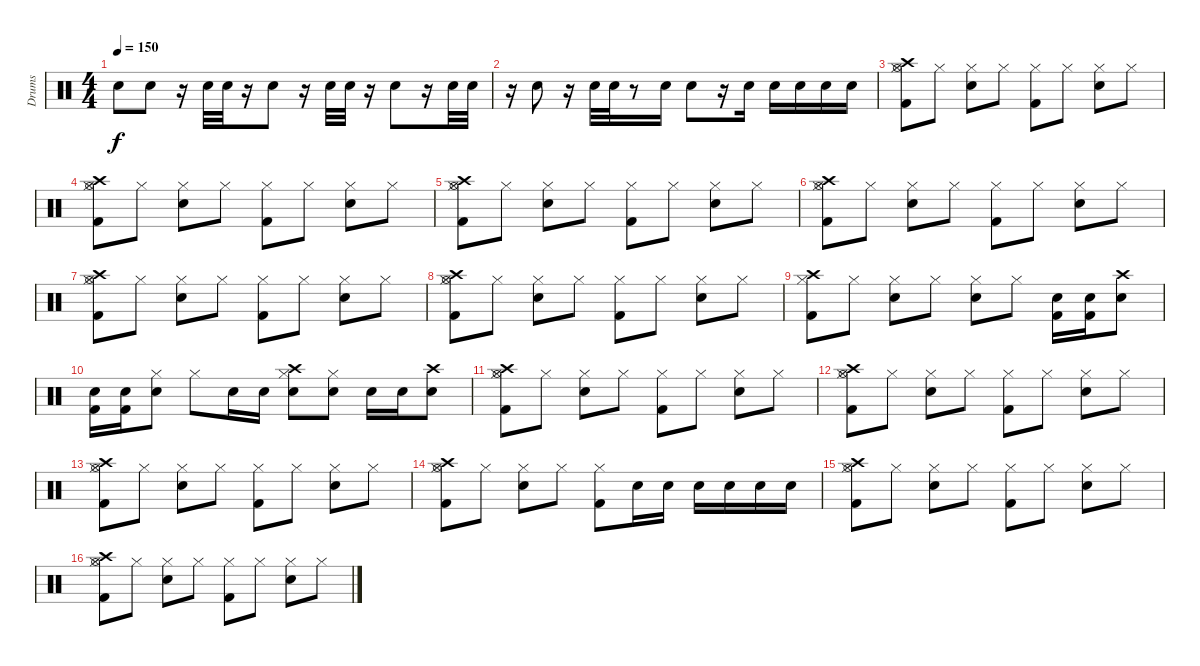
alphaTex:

\track ("Drums" "Drums") {instrument percussion}
\staff {score}
\articulation defaults
\ts (4 4)
\tempo 150
\clef neutral
\ks c "Snare (hit) 2".8{dy f} "Snare (hit) 2".8
r.16 "Snare (hit) 2".32 "Snare (hit) 2".32 r.16 "Snare (hit) 2".8 r.16 "Snare (hit) 2".32 "Snare (hit) 2".32 r.16 "Snare (hit) 2".8 r.16 "Snare (hit) 2".32 "Snare (hit) 2".32 |
r.16 "Snare (hit) 2".8 r.16 "Snare (hit) 2".32 "Snare (hit) 2".32 r.8 "Snare (hit) 2".16 "Snare (hit) 2".8 r.16 "Snare (hit) 2".16 "Snare (hit) 2".16 "Snare (hit) 2".16 "Snare (hit) 2".16 "Snare (hit) 2".16 |
("Kick (hit) 2" "Hi-Hat (closed)" "Crash high (hit)" "Hi-Hat (open)").8 "Hi-Hat (closed)".8 ("Snare (hit) 2" "Hi-Hat (closed)").8 "Hi-Hat (closed)".8 ("Kick (hit) 2" "Hi-Hat (closed)").8 "Hi-Hat (closed)".8 ("Snare (hit) 2" "Hi-Hat (closed)").8 "Hi-Hat (closed)".8 |
("Kick (hit) 2" "Hi-Hat (closed)" "Crash high (hit)" "Hi-Hat (open)").8 "Hi-Hat (closed)".8 ("Snare (hit) 2" "Hi-Hat (closed)").8 "Hi-Hat (closed)".8 ("Kick (hit) 2" "Hi-Hat (closed)").8 "Hi-Hat (closed)".8 ("Snare (hit) 2" "Hi-Hat (closed)").8 "Hi-Hat (closed)".8 |
("Kick (hit) 2" "Hi-Hat (closed)" "Crash high (hit)" "Hi-Hat (open)").8 "Hi-Hat (closed)".8 ("Snare (hit) 2" "Hi-Hat (closed)").8 "Hi-Hat (closed)".8 ("Kick (hit) 2" "Hi-Hat (closed)").8 "Hi-Hat (closed)".8 ("Snare (hit) 2" "Hi-Hat (closed)").8 "Hi-Hat (closed)".8 |
("Kick (hit) 2" "Hi-Hat (closed)" "Crash high (hit)" "Hi-Hat (open)").8 "Hi-Hat (closed)".8 ("Snare (hit) 2" "Hi-Hat (closed)").8 "Hi-Hat (closed)".8 ("Kick (hit) 2" "Hi-Hat (closed)").8 "Hi-Hat (closed)".8 ("Snare (hit) 2" "Hi-Hat (closed)").8 "Hi-Hat (closed)".8 |
("Kick (hit) 2" "Hi-Hat (closed)" "Crash high (hit)" "Hi-Hat (open)").8 "Hi-Hat (closed)".8 ("Snare (hit) 2" "Hi-Hat (closed)").8 "Hi-Hat (closed)".8 ("Kick (hit) 2" "Hi-Hat (closed)").8 "Hi-Hat (closed)".8 ("Snare (hit) 2" "Hi-Hat (closed)").8 "Hi-Hat (closed)".8 |
("Kick (hit) 2" "Hi-Hat (closed)" "Crash high (hit)" "Hi-Hat (open)").8 "Hi-Hat (closed)".8 ("Snare (hit) 2" "Hi-Hat (closed)").8 "Hi-Hat (closed)".8 ("Kick (hit) 2" "Hi-Hat (closed)").8 "Hi-Hat (closed)".8 ("Snare (hit) 2" "Hi-Hat (closed)").8 "Hi-Hat (closed)".8 |
("Kick (hit) 2" "Hi-Hat (closed)" "Crash high (hit)").8 "Hi-Hat (closed)".8 ("Snare (hit) 2" "Hi-Hat (closed)").8 "Hi-Hat (closed)".8 ("Snare (hit) 2" "Hi-Hat (closed)").8 "Hi-Hat (closed)".8 ("Snare (hit) 2" "Kick (hit) 2").16 ("Snare (hit) 2" "Kick (hit) 2").16 ("Snare (hit) 2" "Crash high (hit)").8 |
("Snare (hit) 2" "Kick (hit) 2").16 ("Snare (hit) 2" "Kick (hit) 2").16 ("Snare (hit) 2" "Hi-Hat (closed)").8 "Hi-Hat (closed)".8 "Snare (hit) 2".16 "Snare (hit) 2".16 ("Snare (hit) 2" "Hi-Hat (closed)" "Crash high (hit)").8 ("Snare (hit) 2" "Hi-Hat (closed)").8 "Snare (hit) 2".16 "Snare (hit) 2".16 ("Snare (hit) 2" "Crash high (hit)").8 |
("Kick (hit) 2" "Hi-Hat (closed)" "Crash high (hit)" "Hi-Hat (open)").8 "Hi-Hat (closed)".8 ("Snare (hit) 2" "Hi-Hat (closed)").8 "Hi-Hat (closed)".8 ("Kick (hit) 2" "Hi-Hat (closed)").8 "Hi-Hat (closed)".8 ("Snare (hit) 2" "Hi-Hat (closed)").8 "Hi-Hat (closed)".8 |
("Kick (hit) 2" "Hi-Hat (closed)" "Crash high (hit)" "Hi-Hat (open)").8 "Hi-Hat (closed)".8 ("Snare (hit) 2" "Hi-Hat (closed)").8 "Hi-Hat (closed)".8 ("Kick (hit) 2" "Hi-Hat (closed)").8 "Hi-Hat (closed)".8 ("Snare (hit) 2" "Hi-Hat (closed)").8 "Hi-Hat (closed)".8 |
("Kick (hit) 2" "Hi-Hat (closed)" "Crash high (hit)" "Hi-Hat (open)").8 "Hi-Hat (closed)".8 ("Snare (hit) 2" "Hi-Hat (closed)").8 "Hi-Hat (closed)".8 ("Kick (hit) 2" "Hi-Hat (closed)").8 "Hi-Hat (closed)".8 ("Snare (hit) 2" "Hi-Hat (closed)").8 "Hi-Hat (closed)".8 |
("Kick (hit) 2" "Hi-Hat (closed)" "Crash high (hit)" "Hi-Hat (open)").8 "Hi-Hat (closed)".8 ("Snare (hit) 2" "Hi-Hat (closed)").8 "Hi-Hat (closed)".8 ("Kick (hit) 2" "Hi-Hat (closed)").8 "Snare (hit) 2".16 "Snare (hit) 2".16 "Snare (hit) 2".16 "Snare (hit) 2".16 "Snare (hit) 2".16 "Snare (hit) 2".16 |
("Kick (hit) 2" "Hi-Hat (closed)" "Crash high (hit)" "Hi-Hat (open)").8 "Hi-Hat (closed)".8 ("Snare (hit) 2" "Hi-Hat (closed)").8 "Hi-Hat (closed)".8 ("Kick (hit) 2" "Hi-Hat (closed)").8 "Hi-Hat (closed)".8 ("Snare (hit) 2" "Hi-Hat (closed)").8 "Hi-Hat (closed)".8 |
("Kick (hit) 2" "Hi-Hat (closed)" "Crash high (hit)" "Hi-Hat (open)").8 "Hi-Hat (closed)".8 ("Snare (hit) 2" "Hi-Hat (closed)").8 "Hi-Hat (closed)".8 ("Kick (hit) 2" "Hi-Hat (closed)").8 "Hi-Hat (closed)".8 ("Snare (hit) 2" "Hi-Hat (closed)").8 "Hi-Hat (closed)".8
